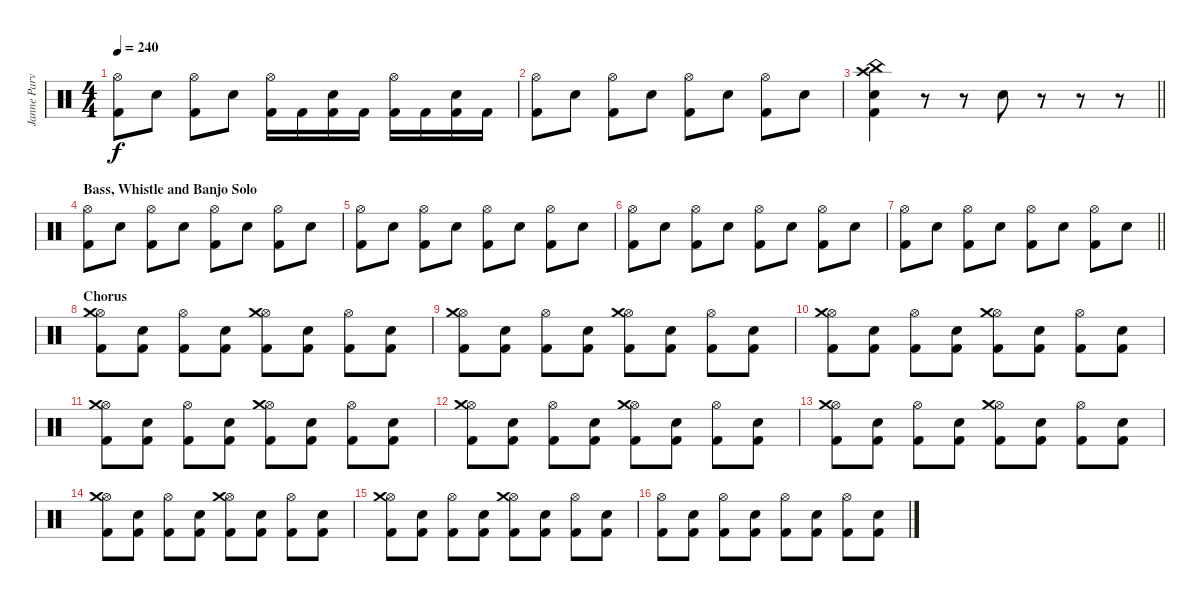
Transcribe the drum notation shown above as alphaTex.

\track ("Janne Parviainen" "Janne Parv") {instrument percussion}
\staff {score}
\articulation defaults
\ts (4 4)
\tempo 240
\clef neutral
\ks c
("Kick (hit) 2" "Hi-Hat (open)").8{dy f} "Electric Snare (hit)".8 ("Kick (hit) 2" "Hi-Hat (open)").8 "Electric Snare (hit)".8 ("Kick (hit) 2" "Hi-Hat (open)").16 "Kick (hit) 2".16 ("Electric Snare (hit)" "Kick (hit) 2").16 "Kick (hit) 2".16 ("Kick (hit) 2" "Hi-Hat (open)").16 "Kick (hit) 2".16 ("Electric Snare (hit)" "Kick (hit) 2").16 "Kick (hit) 2".16 |
("Kick (hit) 2" "Hi-Hat (open)").8 "Electric Snare (hit)".8 ("Kick (hit) 2" "Hi-Hat (open)").8 "Electric Snare (hit)".8 ("Kick (hit) 2" "Hi-Hat (open)").8 "Electric Snare (hit)".8 ("Kick (hit) 2" "Hi-Hat (open)").8 "Electric Snare (hit)".8 |
\barLineRight lightlight
("Kick (hit) 2" "Electric Snare (hit)" "Crash high (hit)" "China (hit)").4 r.8 r.8 "Electric Snare (hit)".8 r.8 r.8 r.8 |
\section ("" "Bass, Whistle and Banjo Solo")
("Kick (hit) 2" "Hi-Hat (open)").8 "Electric Snare (hit)".8 ("Kick (hit) 2" "Hi-Hat (open)").8 "Electric Snare (hit)".8 ("Kick (hit) 2" "Hi-Hat (open)").8 "Electric Snare (hit)".8 ("Kick (hit) 2" "Hi-Hat (open)").8 "Electric Snare (hit)".8 |
("Kick (hit) 2" "Hi-Hat (open)").8 "Electric Snare (hit)".8 ("Kick (hit) 2" "Hi-Hat (open)").8 "Electric Snare (hit)".8 ("Kick (hit) 2" "Hi-Hat (open)").8 "Electric Snare (hit)".8 ("Kick (hit) 2" "Hi-Hat (open)").8 "Electric Snare (hit)".8 |
("Kick (hit) 2" "Hi-Hat (open)").8 "Electric Snare (hit)".8 ("Kick (hit) 2" "Hi-Hat (open)").8 "Electric Snare (hit)".8 ("Kick (hit) 2" "Hi-Hat (open)").8 "Electric Snare (hit)".8 ("Kick (hit) 2" "Hi-Hat (open)").8 "Electric Snare (hit)".8 |
\barLineRight lightlight
("Kick (hit) 2" "Hi-Hat (open)").8 "Electric Snare (hit)".8 ("Kick (hit) 2" "Hi-Hat (open)").8 "Electric Snare (hit)".8 ("Kick (hit) 2" "Hi-Hat (open)").8 "Electric Snare (hit)".8 ("Kick (hit) 2" "Hi-Hat (open)").8 "Electric Snare (hit)".8 |
\section ("" "Chorus")
("Kick (hit) 2" "Hi-Hat (open)" "Crash medium (hit)").8 ("Electric Snare (hit)" "Kick (hit) 2").8 ("Kick (hit) 2" "Hi-Hat (open)").8 ("Electric Snare (hit)" "Kick (hit) 2").8 ("Kick (hit) 2" "Hi-Hat (open)" "Crash medium (hit)").8 ("Electric Snare (hit)" "Kick (hit) 2").8 ("Kick (hit) 2" "Hi-Hat (open)").8 ("Electric Snare (hit)" "Kick (hit) 2").8 |
("Kick (hit) 2" "Hi-Hat (open)" "Crash medium (hit)").8 ("Electric Snare (hit)" "Kick (hit) 2").8 ("Kick (hit) 2" "Hi-Hat (open)").8 ("Electric Snare (hit)" "Kick (hit) 2").8 ("Kick (hit) 2" "Hi-Hat (open)" "Crash medium (hit)").8 ("Electric Snare (hit)" "Kick (hit) 2").8 ("Kick (hit) 2" "Hi-Hat (open)").8 ("Electric Snare (hit)" "Kick (hit) 2").8 |
("Kick (hit) 2" "Hi-Hat (open)" "Crash medium (hit)").8 ("Electric Snare (hit)" "Kick (hit) 2").8 ("Kick (hit) 2" "Hi-Hat (open)").8 ("Electric Snare (hit)" "Kick (hit) 2").8 ("Kick (hit) 2" "Hi-Hat (open)" "Crash medium (hit)").8 ("Electric Snare (hit)" "Kick (hit) 2").8 ("Kick (hit) 2" "Hi-Hat (open)").8 ("Electric Snare (hit)" "Kick (hit) 2").8 |
("Kick (hit) 2" "Hi-Hat (open)" "Crash medium (hit)").8 ("Electric Snare (hit)" "Kick (hit) 2").8 ("Kick (hit) 2" "Hi-Hat (open)").8 ("Electric Snare (hit)" "Kick (hit) 2").8 ("Kick (hit) 2" "Hi-Hat (open)" "Crash medium (hit)").8 ("Electric Snare (hit)" "Kick (hit) 2").8 ("Kick (hit) 2" "Hi-Hat (open)").8 ("Electric Snare (hit)" "Kick (hit) 2").8 |
("Kick (hit) 2" "Hi-Hat (open)" "Crash medium (hit)").8 ("Electric Snare (hit)" "Kick (hit) 2").8 ("Kick (hit) 2" "Hi-Hat (open)").8 ("Electric Snare (hit)" "Kick (hit) 2").8 ("Kick (hit) 2" "Hi-Hat (open)" "Crash medium (hit)").8 ("Electric Snare (hit)" "Kick (hit) 2").8 ("Kick (hit) 2" "Hi-Hat (open)").8 ("Electric Snare (hit)" "Kick (hit) 2").8 |
("Kick (hit) 2" "Hi-Hat (open)" "Crash medium (hit)").8 ("Electric Snare (hit)" "Kick (hit) 2").8 ("Kick (hit) 2" "Hi-Hat (open)").8 ("Electric Snare (hit)" "Kick (hit) 2").8 ("Kick (hit) 2" "Hi-Hat (open)" "Crash medium (hit)").8 ("Electric Snare (hit)" "Kick (hit) 2").8 ("Kick (hit) 2" "Hi-Hat (open)").8 ("Electric Snare (hit)" "Kick (hit) 2").8 |
("Kick (hit) 2" "Hi-Hat (open)" "Crash medium (hit)").8 ("Electric Snare (hit)" "Kick (hit) 2").8 ("Kick (hit) 2" "Hi-Hat (open)").8 ("Electric Snare (hit)" "Kick (hit) 2").8 ("Kick (hit) 2" "Hi-Hat (open)" "Crash medium (hit)").8 ("Electric Snare (hit)" "Kick (hit) 2").8 ("Kick (hit) 2" "Hi-Hat (open)").8 ("Electric Snare (hit)" "Kick (hit) 2").8 |
("Kick (hit) 2" "Hi-Hat (open)" "Crash medium (hit)").8 ("Electric Snare (hit)" "Kick (hit) 2").8 ("Kick (hit) 2" "Hi-Hat (open)").8 ("Electric Snare (hit)" "Kick (hit) 2").8 ("Kick (hit) 2" "Hi-Hat (open)" "Crash medium (hit)").8 ("Electric Snare (hit)" "Kick (hit) 2").8 ("Kick (hit) 2" "Hi-Hat (open)").8 ("Electric Snare (hit)" "Kick (hit) 2").8 |
("Kick (hit) 2" "Hi-Hat (open)").8 ("Electric Snare (hit)" "Kick (hit) 2").8 ("Kick (hit) 2" "Hi-Hat (open)").8 ("Electric Snare (hit)" "Kick (hit) 2").8 ("Kick (hit) 2" "Hi-Hat (open)").8 ("Electric Snare (hit)" "Kick (hit) 2").8 ("Kick (hit) 2" "Hi-Hat (open)").8 ("Electric Snare (hit)" "Kick (hit) 2").8
